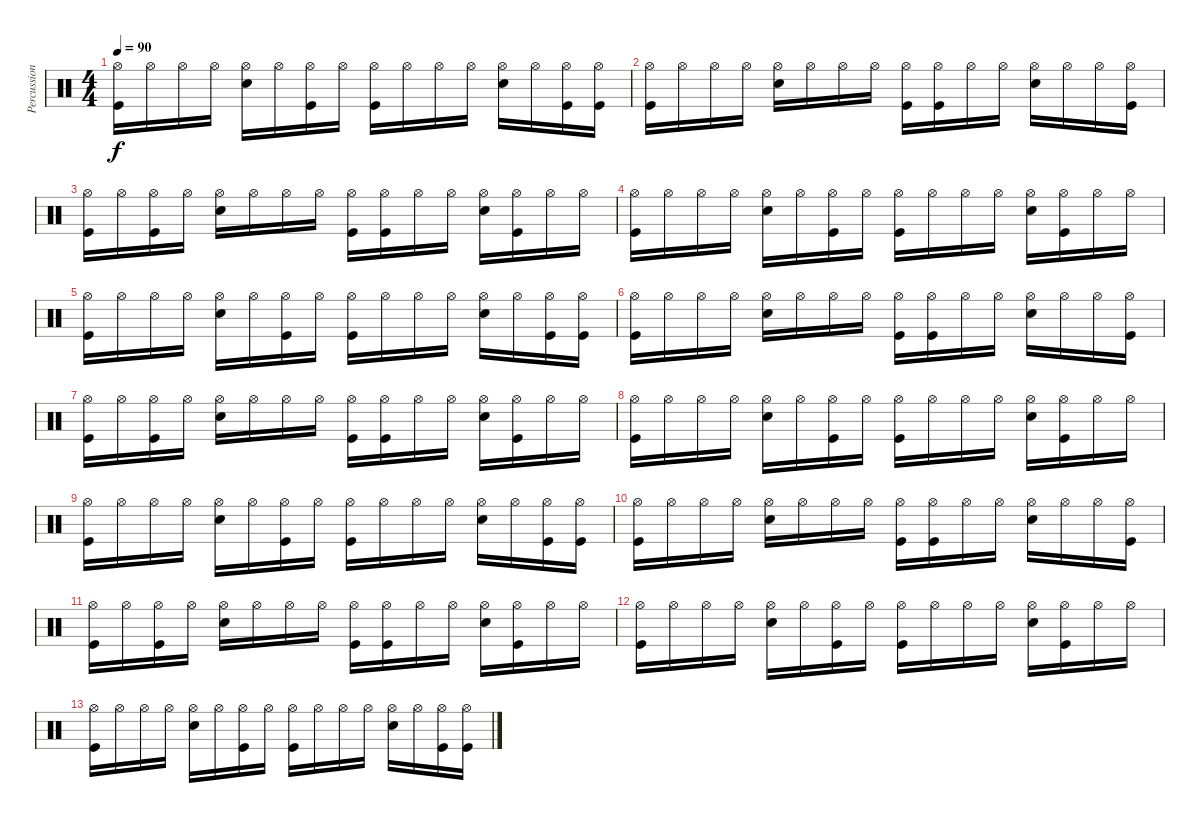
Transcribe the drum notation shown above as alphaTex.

\track ("Percussion" "Percussion") {instrument percussion}
\staff {score}
\articulation defaults
\ts (4 4)
\tempo 90
\clef neutral
\ks c
("Hi-Hat (open)" "Kick (hit)").16{dy f} "Hi-Hat (open)".16 "Hi-Hat (open)".16 "Hi-Hat (open)".16 ("Hi-Hat (open)" "Electric Snare (hit)").16 "Hi-Hat (open)".16 ("Hi-Hat (open)" "Kick (hit)").16 "Hi-Hat (open)".16 ("Hi-Hat (open)" "Kick (hit)").16 "Hi-Hat (open)".16 "Hi-Hat (open)".16 "Hi-Hat (open)".16 ("Hi-Hat (open)" "Electric Snare (hit)").16 "Hi-Hat (open)".16 ("Hi-Hat (open)" "Kick (hit)").16 ("Hi-Hat (open)" "Kick (hit)").16 |
("Hi-Hat (open)" "Kick (hit)").16 "Hi-Hat (open)".16 "Hi-Hat (open)".16 "Hi-Hat (open)".16 ("Hi-Hat (open)" "Electric Snare (hit)").16 "Hi-Hat (open)".16 "Hi-Hat (open)".16 "Hi-Hat (open)".16 ("Hi-Hat (open)" "Kick (hit)").16 ("Hi-Hat (open)" "Kick (hit)").16 "Hi-Hat (open)".16 "Hi-Hat (open)".16 ("Hi-Hat (open)" "Electric Snare (hit)").16 "Hi-Hat (open)".16 "Hi-Hat (open)".16 ("Hi-Hat (open)" "Kick (hit)").16 |
("Hi-Hat (open)" "Kick (hit)").16 "Hi-Hat (open)".16 ("Hi-Hat (open)" "Kick (hit)").16 "Hi-Hat (open)".16 ("Hi-Hat (open)" "Electric Snare (hit)").16 "Hi-Hat (open)".16 "Hi-Hat (open)".16 "Hi-Hat (open)".16 ("Hi-Hat (open)" "Kick (hit)").16 ("Hi-Hat (open)" "Kick (hit)").16 "Hi-Hat (open)".16 "Hi-Hat (open)".16 ("Hi-Hat (open)" "Electric Snare (hit)").16 ("Hi-Hat (open)" "Kick (hit)").16 "Hi-Hat (open)".16 "Hi-Hat (open)".16 |
("Hi-Hat (open)" "Kick (hit)").16 "Hi-Hat (open)".16 "Hi-Hat (open)".16 "Hi-Hat (open)".16 ("Hi-Hat (open)" "Electric Snare (hit)").16 "Hi-Hat (open)".16 ("Hi-Hat (open)" "Kick (hit)").16 "Hi-Hat (open)".16 ("Hi-Hat (open)" "Kick (hit)").16 "Hi-Hat (open)".16 "Hi-Hat (open)".16 "Hi-Hat (open)".16 ("Hi-Hat (open)" "Electric Snare (hit)").16 ("Hi-Hat (open)" "Kick (hit)").16 "Hi-Hat (open)".16 "Hi-Hat (open)".16 |
("Hi-Hat (open)" "Kick (hit)").16 "Hi-Hat (open)".16 "Hi-Hat (open)".16 "Hi-Hat (open)".16 ("Hi-Hat (open)" "Electric Snare (hit)").16 "Hi-Hat (open)".16 ("Hi-Hat (open)" "Kick (hit)").16 "Hi-Hat (open)".16 ("Hi-Hat (open)" "Kick (hit)").16 "Hi-Hat (open)".16 "Hi-Hat (open)".16 "Hi-Hat (open)".16 ("Hi-Hat (open)" "Electric Snare (hit)").16 "Hi-Hat (open)".16 ("Hi-Hat (open)" "Kick (hit)").16 ("Hi-Hat (open)" "Kick (hit)").16 |
("Hi-Hat (open)" "Kick (hit)").16 "Hi-Hat (open)".16 "Hi-Hat (open)".16 "Hi-Hat (open)".16 ("Hi-Hat (open)" "Electric Snare (hit)").16 "Hi-Hat (open)".16 "Hi-Hat (open)".16 "Hi-Hat (open)".16 ("Hi-Hat (open)" "Kick (hit)").16 ("Hi-Hat (open)" "Kick (hit)").16 "Hi-Hat (open)".16 "Hi-Hat (open)".16 ("Hi-Hat (open)" "Electric Snare (hit)").16 "Hi-Hat (open)".16 "Hi-Hat (open)".16 ("Hi-Hat (open)" "Kick (hit)").16 |
("Hi-Hat (open)" "Kick (hit)").16 "Hi-Hat (open)".16 ("Hi-Hat (open)" "Kick (hit)").16 "Hi-Hat (open)".16 ("Hi-Hat (open)" "Electric Snare (hit)").16 "Hi-Hat (open)".16 "Hi-Hat (open)".16 "Hi-Hat (open)".16 ("Hi-Hat (open)" "Kick (hit)").16 ("Hi-Hat (open)" "Kick (hit)").16 "Hi-Hat (open)".16 "Hi-Hat (open)".16 ("Hi-Hat (open)" "Electric Snare (hit)").16 ("Hi-Hat (open)" "Kick (hit)").16 "Hi-Hat (open)".16 "Hi-Hat (open)".16 |
("Hi-Hat (open)" "Kick (hit)").16 "Hi-Hat (open)".16 "Hi-Hat (open)".16 "Hi-Hat (open)".16 ("Hi-Hat (open)" "Electric Snare (hit)").16 "Hi-Hat (open)".16 ("Hi-Hat (open)" "Kick (hit)").16 "Hi-Hat (open)".16 ("Hi-Hat (open)" "Kick (hit)").16 "Hi-Hat (open)".16 "Hi-Hat (open)".16 "Hi-Hat (open)".16 ("Hi-Hat (open)" "Electric Snare (hit)").16 ("Hi-Hat (open)" "Kick (hit)").16 "Hi-Hat (open)".16 "Hi-Hat (open)".16 |
("Hi-Hat (open)" "Kick (hit)").16 "Hi-Hat (open)".16 "Hi-Hat (open)".16 "Hi-Hat (open)".16 ("Hi-Hat (open)" "Electric Snare (hit)").16 "Hi-Hat (open)".16 ("Hi-Hat (open)" "Kick (hit)").16 "Hi-Hat (open)".16 ("Hi-Hat (open)" "Kick (hit)").16 "Hi-Hat (open)".16 "Hi-Hat (open)".16 "Hi-Hat (open)".16 ("Hi-Hat (open)" "Electric Snare (hit)").16 "Hi-Hat (open)".16 ("Hi-Hat (open)" "Kick (hit)").16 ("Hi-Hat (open)" "Kick (hit)").16 |
("Hi-Hat (open)" "Kick (hit)").16 "Hi-Hat (open)".16 "Hi-Hat (open)".16 "Hi-Hat (open)".16 ("Hi-Hat (open)" "Electric Snare (hit)").16 "Hi-Hat (open)".16 "Hi-Hat (open)".16 "Hi-Hat (open)".16 ("Hi-Hat (open)" "Kick (hit)").16 ("Hi-Hat (open)" "Kick (hit)").16 "Hi-Hat (open)".16 "Hi-Hat (open)".16 ("Hi-Hat (open)" "Electric Snare (hit)").16 "Hi-Hat (open)".16 "Hi-Hat (open)".16 ("Hi-Hat (open)" "Kick (hit)").16 |
("Hi-Hat (open)" "Kick (hit)").16 "Hi-Hat (open)".16 ("Hi-Hat (open)" "Kick (hit)").16 "Hi-Hat (open)".16 ("Hi-Hat (open)" "Electric Snare (hit)").16 "Hi-Hat (open)".16 "Hi-Hat (open)".16 "Hi-Hat (open)".16 ("Hi-Hat (open)" "Kick (hit)").16 ("Hi-Hat (open)" "Kick (hit)").16 "Hi-Hat (open)".16 "Hi-Hat (open)".16 ("Hi-Hat (open)" "Electric Snare (hit)").16 ("Hi-Hat (open)" "Kick (hit)").16 "Hi-Hat (open)".16 "Hi-Hat (open)".16 |
("Hi-Hat (open)" "Kick (hit)").16 "Hi-Hat (open)".16 "Hi-Hat (open)".16 "Hi-Hat (open)".16 ("Hi-Hat (open)" "Electric Snare (hit)").16 "Hi-Hat (open)".16 ("Hi-Hat (open)" "Kick (hit)").16 "Hi-Hat (open)".16 ("Hi-Hat (open)" "Kick (hit)").16 "Hi-Hat (open)".16 "Hi-Hat (open)".16 "Hi-Hat (open)".16 ("Hi-Hat (open)" "Electric Snare (hit)").16 ("Hi-Hat (open)" "Kick (hit)").16 "Hi-Hat (open)".16 "Hi-Hat (open)".16 |
("Hi-Hat (open)" "Kick (hit)").16 "Hi-Hat (open)".16 "Hi-Hat (open)".16 "Hi-Hat (open)".16 ("Hi-Hat (open)" "Electric Snare (hit)").16 "Hi-Hat (open)".16 ("Hi-Hat (open)" "Kick (hit)").16 "Hi-Hat (open)".16 ("Hi-Hat (open)" "Kick (hit)").16 "Hi-Hat (open)".16 "Hi-Hat (open)".16 "Hi-Hat (open)".16 ("Hi-Hat (open)" "Electric Snare (hit)").16 "Hi-Hat (open)".16 ("Hi-Hat (open)" "Kick (hit)").16 ("Hi-Hat (open)" "Kick (hit)").16
